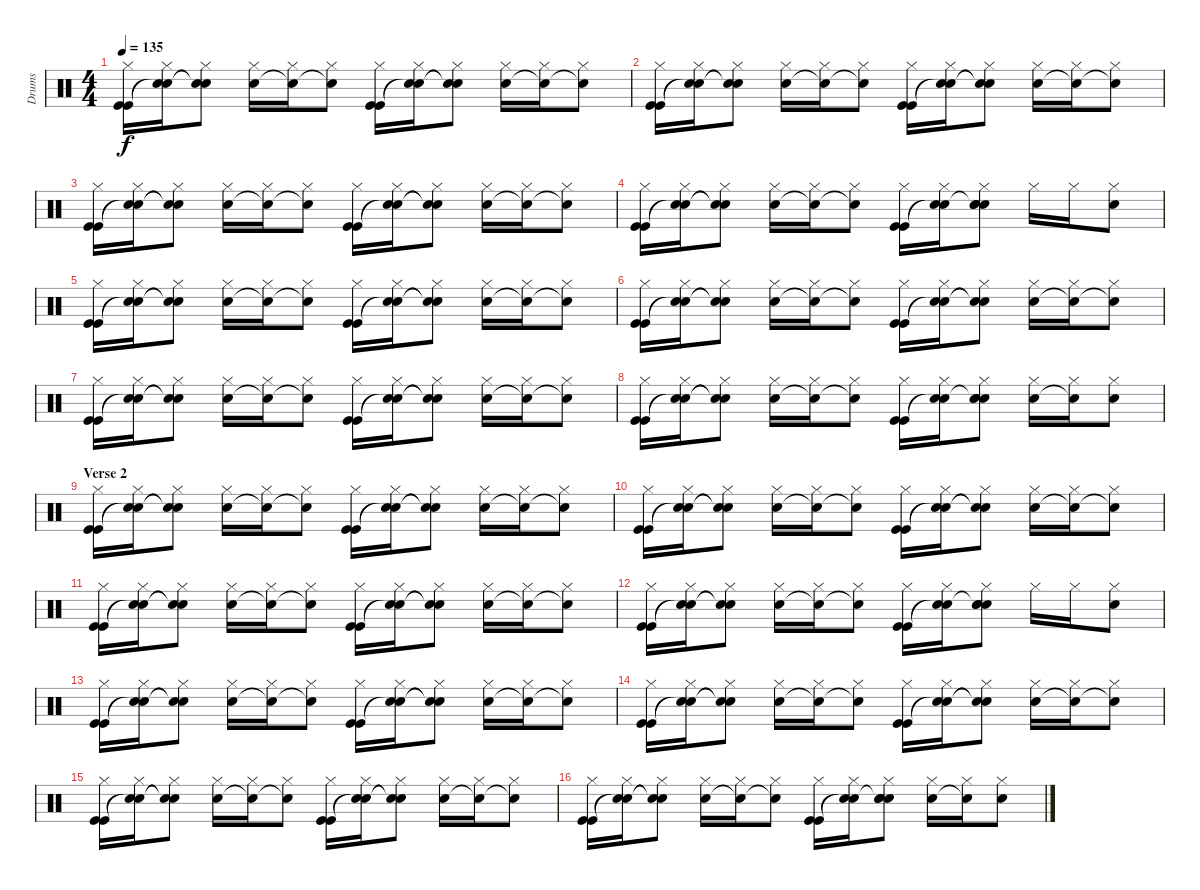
\track ("Drums" "Drums") {instrument percussion}
\staff {score}
\articulation defaults
\ts (4 4)
\tempo 135
\clef neutral
\ks c
("Hi-Hat (closed)" "Kick (hit)" "Kick (hit)").16{dy f} ("Hi-Hat (closed)" "Snare (hit)"{t} "Snare (hit)"{t}).16 ("Hi-Hat (closed)" "Snare (hit)"{t} "Snare (hit)"{t}).8 ("Hi-Hat (closed)" "Snare (hit) 2").16 ("Hi-Hat (closed)" "Snare (hit)"{t}).16 ("Hi-Hat (closed)" "Snare (hit) 2"{t}).8 ("Hi-Hat (closed)" "Kick (hit)" "Kick (hit)").16 ("Hi-Hat (closed)" "Snare (hit)"{t} "Snare (hit)"{t}).16 ("Hi-Hat (closed)" "Snare (hit)"{t} "Snare (hit)"{t}).8 ("Hi-Hat (closed)" "Snare (hit) 2").16 ("Hi-Hat (closed)" "Snare (hit) 2"{t}).16 ("Hi-Hat (closed)" "Snare (hit)"{t}).8 |
("Hi-Hat (closed)" "Kick (hit)" "Kick (hit)").16 ("Hi-Hat (closed)" "Snare (hit)"{t} "Snare (hit)"{t}).16 ("Hi-Hat (closed)" "Snare (hit)"{t} "Snare (hit)"{t}).8 ("Hi-Hat (closed)" "Snare (hit) 2").16 ("Hi-Hat (closed)" "Snare (hit)"{t}).16 ("Hi-Hat (closed)" "Snare (hit) 2"{t}).8 ("Hi-Hat (closed)" "Kick (hit)" "Kick (hit)").16 ("Hi-Hat (closed)" "Snare (hit)"{t} "Snare (hit)"{t}).16 ("Hi-Hat (closed)" "Snare (hit)"{t} "Snare (hit)"{t}).8 ("Hi-Hat (closed)" "Snare (hit) 2").16 ("Hi-Hat (closed)" "Snare (hit) 2"{t}).16 ("Hi-Hat (closed)" "Snare (hit)"{t}).8 |
("Hi-Hat (closed)" "Kick (hit)" "Kick (hit)").16 ("Hi-Hat (closed)" "Snare (hit)"{t} "Snare (hit)"{t}).16 ("Hi-Hat (closed)" "Snare (hit)"{t} "Snare (hit)"{t}).8 ("Hi-Hat (closed)" "Snare (hit) 2").16 ("Hi-Hat (closed)" "Snare (hit)"{t}).16 ("Hi-Hat (closed)" "Snare (hit) 2"{t}).8 ("Hi-Hat (closed)" "Kick (hit)" "Kick (hit)").16 ("Hi-Hat (closed)" "Snare (hit)"{t} "Snare (hit)"{t}).16 ("Hi-Hat (closed)" "Snare (hit)"{t} "Snare (hit)"{t}).8 ("Hi-Hat (closed)" "Snare (hit) 2").16 ("Hi-Hat (closed)" "Snare (hit) 2"{t}).16 ("Hi-Hat (closed)" "Snare (hit)"{t}).8 |
("Hi-Hat (closed)" "Kick (hit)" "Kick (hit)").16 ("Hi-Hat (closed)" "Snare (hit)"{t} "Snare (hit)"{t}).16 ("Hi-Hat (closed)" "Snare (hit)"{t} "Snare (hit)"{t}).8 ("Hi-Hat (closed)" "Snare (hit) 2").16 ("Hi-Hat (closed)" "Snare (hit)"{t}).16 ("Hi-Hat (closed)" "Snare (hit) 2"{t}).8 ("Hi-Hat (closed)" "Kick (hit)" "Kick (hit)").16 ("Hi-Hat (closed)" "Snare (hit)"{t} "Snare (hit)"{t}).16 ("Hi-Hat (closed)" "Snare (hit) 2" "Snare (hit)"{t} "Snare (hit)").8 "Hi-Hat (closed)".16 "Hi-Hat (closed)".16 ("Hi-Hat (closed)" "Snare (hit) 2").8 |
("Hi-Hat (closed)" "Kick (hit)" "Kick (hit)").16 ("Hi-Hat (closed)" "Snare (hit)"{t} "Snare (hit)"{t}).16 ("Hi-Hat (closed)" "Snare (hit)"{t} "Snare (hit)"{t}).8 ("Hi-Hat (closed)" "Snare (hit) 2").16 ("Hi-Hat (closed)" "Snare (hit)"{t}).16 ("Hi-Hat (closed)" "Snare (hit) 2"{t}).8 ("Hi-Hat (closed)" "Kick (hit)" "Kick (hit)").16 ("Hi-Hat (closed)" "Snare (hit)"{t} "Snare (hit)"{t}).16 ("Hi-Hat (closed)" "Snare (hit)"{t} "Snare (hit)"{t}).8 ("Hi-Hat (closed)" "Snare (hit) 2").16 ("Hi-Hat (closed)" "Snare (hit) 2"{t}).16 ("Hi-Hat (closed)" "Snare (hit)"{t}).8 |
("Hi-Hat (closed)" "Kick (hit)" "Kick (hit)").16 ("Hi-Hat (closed)" "Snare (hit)"{t} "Snare (hit)"{t}).16 ("Hi-Hat (closed)" "Snare (hit)"{t} "Snare (hit)"{t}).8 ("Hi-Hat (closed)" "Snare (hit) 2").16 ("Hi-Hat (closed)" "Snare (hit)"{t}).16 ("Hi-Hat (closed)" "Snare (hit) 2"{t}).8 ("Hi-Hat (closed)" "Kick (hit)" "Kick (hit)").16 ("Hi-Hat (closed)" "Snare (hit)"{t} "Snare (hit)"{t}).16 ("Hi-Hat (closed)" "Snare (hit)"{t} "Snare (hit)"{t}).8 ("Hi-Hat (closed)" "Snare (hit) 2").16 ("Hi-Hat (closed)" "Snare (hit) 2"{t}).16 ("Hi-Hat (closed)" "Snare (hit)"{t}).8 |
("Hi-Hat (closed)" "Kick (hit)" "Kick (hit)").16 ("Hi-Hat (closed)" "Snare (hit)"{t} "Snare (hit)"{t}).16 ("Hi-Hat (closed)" "Snare (hit)"{t} "Snare (hit)"{t}).8 ("Hi-Hat (closed)" "Snare (hit) 2").16 ("Hi-Hat (closed)" "Snare (hit)"{t}).16 ("Hi-Hat (closed)" "Snare (hit) 2"{t}).8 ("Hi-Hat (closed)" "Kick (hit)" "Kick (hit)").16 ("Hi-Hat (closed)" "Snare (hit)"{t} "Snare (hit)"{t}).16 ("Hi-Hat (closed)" "Snare (hit)"{t} "Snare (hit)"{t}).8 ("Hi-Hat (closed)" "Snare (hit) 2").16 ("Hi-Hat (closed)" "Snare (hit) 2"{t}).16 ("Hi-Hat (closed)" "Snare (hit)"{t}).8 |
("Hi-Hat (closed)" "Kick (hit)" "Kick (hit)").16 ("Hi-Hat (closed)" "Snare (hit)"{t} "Snare (hit)"{t}).16 ("Hi-Hat (closed)" "Snare (hit)"{t} "Snare (hit)"{t}).8 ("Hi-Hat (closed)" "Snare (hit) 2").16 ("Hi-Hat (closed)" "Snare (hit)"{t}).16 ("Hi-Hat (closed)" "Snare (hit) 2"{t}).8 ("Hi-Hat (closed)" "Kick (hit)" "Kick (hit)").16 ("Hi-Hat (closed)" "Snare (hit)"{t} "Snare (hit)"{t}).16 ("Hi-Hat (closed)" "Snare (hit) 2" "Snare (hit)"{t} "Snare (hit)").8 ("Hi-Hat (closed)" "Snare (hit) 2").16 ("Hi-Hat (closed)" "Snare (hit) 2"{t}).16 ("Hi-Hat (closed)" "Snare (hit) 2").8 |
\section ("" "Verse 2")
("Hi-Hat (closed)" "Kick (hit)" "Kick (hit)").16 ("Hi-Hat (closed)" "Snare (hit)"{t} "Snare (hit)"{t}).16 ("Hi-Hat (closed)" "Snare (hit)"{t} "Snare (hit)"{t}).8 ("Hi-Hat (closed)" "Snare (hit) 2").16 ("Hi-Hat (closed)" "Snare (hit)"{t}).16 ("Hi-Hat (closed)" "Snare (hit) 2"{t}).8 ("Hi-Hat (closed)" "Kick (hit)" "Kick (hit)").16 ("Hi-Hat (closed)" "Snare (hit)"{t} "Snare (hit)"{t}).16 ("Hi-Hat (closed)" "Snare (hit)"{t} "Snare (hit)"{t}).8 ("Hi-Hat (closed)" "Snare (hit) 2").16 ("Hi-Hat (closed)" "Snare (hit) 2"{t}).16 ("Hi-Hat (closed)" "Snare (hit)"{t}).8 |
("Hi-Hat (closed)" "Kick (hit)" "Kick (hit)").16 ("Hi-Hat (closed)" "Snare (hit)"{t} "Snare (hit)"{t}).16 ("Hi-Hat (closed)" "Snare (hit)"{t} "Snare (hit)"{t}).8 ("Hi-Hat (closed)" "Snare (hit) 2").16 ("Hi-Hat (closed)" "Snare (hit)"{t}).16 ("Hi-Hat (closed)" "Snare (hit) 2"{t}).8 ("Hi-Hat (closed)" "Kick (hit)" "Kick (hit)").16 ("Hi-Hat (closed)" "Snare (hit)"{t} "Snare (hit)"{t}).16 ("Hi-Hat (closed)" "Snare (hit)"{t} "Snare (hit)"{t}).8 ("Hi-Hat (closed)" "Snare (hit) 2").16 ("Hi-Hat (closed)" "Snare (hit) 2"{t}).16 ("Hi-Hat (closed)" "Snare (hit)"{t}).8 |
("Hi-Hat (closed)" "Kick (hit)" "Kick (hit)").16 ("Hi-Hat (closed)" "Snare (hit)"{t} "Snare (hit)"{t}).16 ("Hi-Hat (closed)" "Snare (hit)"{t} "Snare (hit)"{t}).8 ("Hi-Hat (closed)" "Snare (hit) 2").16 ("Hi-Hat (closed)" "Snare (hit)"{t}).16 ("Hi-Hat (closed)" "Snare (hit) 2"{t}).8 ("Hi-Hat (closed)" "Kick (hit)" "Kick (hit)").16 ("Hi-Hat (closed)" "Snare (hit)"{t} "Snare (hit)"{t}).16 ("Hi-Hat (closed)" "Snare (hit)"{t} "Snare (hit)"{t}).8 ("Hi-Hat (closed)" "Snare (hit) 2").16 ("Hi-Hat (closed)" "Snare (hit) 2"{t}).16 ("Hi-Hat (closed)" "Snare (hit)"{t}).8 |
("Hi-Hat (closed)" "Kick (hit)" "Kick (hit)").16 ("Hi-Hat (closed)" "Snare (hit)"{t} "Snare (hit)"{t}).16 ("Hi-Hat (closed)" "Snare (hit)"{t} "Snare (hit)"{t}).8 ("Hi-Hat (closed)" "Snare (hit) 2").16 ("Hi-Hat (closed)" "Snare (hit)"{t}).16 ("Hi-Hat (closed)" "Snare (hit) 2"{t}).8 ("Hi-Hat (closed)" "Kick (hit)" "Kick (hit)").16 ("Hi-Hat (closed)" "Snare (hit)"{t} "Snare (hit)"{t}).16 ("Hi-Hat (closed)" "Snare (hit) 2" "Snare (hit)"{t} "Snare (hit)").8 "Hi-Hat (closed)".16 "Hi-Hat (closed)".16 ("Hi-Hat (closed)" "Snare (hit) 2").8 |
("Hi-Hat (closed)" "Kick (hit)" "Kick (hit)").16 ("Hi-Hat (closed)" "Snare (hit)"{t} "Snare (hit)"{t}).16 ("Hi-Hat (closed)" "Snare (hit)"{t} "Snare (hit)"{t}).8 ("Hi-Hat (closed)" "Snare (hit) 2").16 ("Hi-Hat (closed)" "Snare (hit)"{t}).16 ("Hi-Hat (closed)" "Snare (hit) 2"{t}).8 ("Hi-Hat (closed)" "Kick (hit)" "Kick (hit)").16 ("Hi-Hat (closed)" "Snare (hit)"{t} "Snare (hit)"{t}).16 ("Hi-Hat (closed)" "Snare (hit)"{t} "Snare (hit)"{t}).8 ("Hi-Hat (closed)" "Snare (hit) 2").16 ("Hi-Hat (closed)" "Snare (hit) 2"{t}).16 ("Hi-Hat (closed)" "Snare (hit)"{t}).8 |
("Hi-Hat (closed)" "Kick (hit)" "Kick (hit)").16 ("Hi-Hat (closed)" "Snare (hit)"{t} "Snare (hit)"{t}).16 ("Hi-Hat (closed)" "Snare (hit)"{t} "Snare (hit)"{t}).8 ("Hi-Hat (closed)" "Snare (hit) 2").16 ("Hi-Hat (closed)" "Snare (hit)"{t}).16 ("Hi-Hat (closed)" "Snare (hit) 2"{t}).8 ("Hi-Hat (closed)" "Kick (hit)" "Kick (hit)").16 ("Hi-Hat (closed)" "Snare (hit)"{t} "Snare (hit)"{t}).16 ("Hi-Hat (closed)" "Snare (hit)"{t} "Snare (hit)"{t}).8 ("Hi-Hat (closed)" "Snare (hit) 2").16 ("Hi-Hat (closed)" "Snare (hit) 2"{t}).16 ("Hi-Hat (closed)" "Snare (hit)"{t}).8 |
("Hi-Hat (closed)" "Kick (hit)" "Kick (hit)").16 ("Hi-Hat (closed)" "Snare (hit)"{t} "Snare (hit)"{t}).16 ("Hi-Hat (closed)" "Snare (hit)"{t} "Snare (hit)"{t}).8 ("Hi-Hat (closed)" "Snare (hit) 2").16 ("Hi-Hat (closed)" "Snare (hit)"{t}).16 ("Hi-Hat (closed)" "Snare (hit) 2"{t}).8 ("Hi-Hat (closed)" "Kick (hit)" "Kick (hit)").16 ("Hi-Hat (closed)" "Snare (hit)"{t} "Snare (hit)"{t}).16 ("Hi-Hat (closed)" "Snare (hit)"{t} "Snare (hit)"{t}).8 ("Hi-Hat (closed)" "Snare (hit) 2").16 ("Hi-Hat (closed)" "Snare (hit) 2"{t}).16 ("Hi-Hat (closed)" "Snare (hit)"{t}).8 |
("Hi-Hat (closed)" "Kick (hit)" "Kick (hit)").16 ("Hi-Hat (closed)" "Snare (hit)"{t} "Snare (hit)"{t}).16 ("Hi-Hat (closed)" "Snare (hit)"{t} "Snare (hit)"{t}).8 ("Hi-Hat (closed)" "Snare (hit) 2").16 ("Hi-Hat (closed)" "Snare (hit)"{t}).16 ("Hi-Hat (closed)" "Snare (hit) 2"{t}).8 ("Hi-Hat (closed)" "Kick (hit)" "Kick (hit)").16 ("Hi-Hat (closed)" "Snare (hit)"{t} "Snare (hit)"{t}).16 ("Hi-Hat (closed)" "Snare (hit) 2" "Snare (hit)"{t} "Snare (hit)").8 ("Hi-Hat (closed)" "Snare (hit) 2").16 ("Hi-Hat (closed)" "Snare (hit) 2"{t}).16 ("Hi-Hat (closed)" "Snare (hit) 2").8
